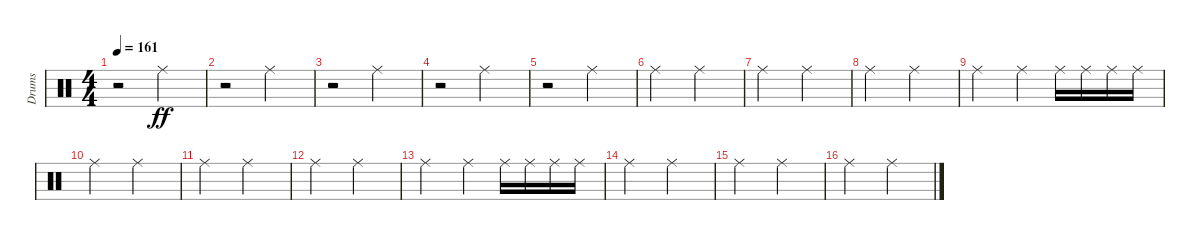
\track ("Drums" "Drums") {instrument percussion}
\staff {score}
\articulation defaults
\ts (4 4)
\tempo 161
\clef neutral
\ks c
r.2{dy ff} "Ride (middle)".2 |
r.2 "Ride (middle)".2 |
r.2 "Ride (middle)".2 |
r.2 "Ride (middle)".2 |
r.2 "Ride (middle)".2 |
"Ride (middle)".2 "Ride (middle)".2 |
"Ride (middle)".2 "Ride (middle)".2 |
"Ride (middle)".2 "Ride (middle)".2 |
"Ride (middle)".2 "Ride (middle)".4 "Ride (middle)".16 "Ride (middle)".16 "Ride (middle)".16 "Ride (middle)".16 |
"Ride (middle)".2 "Ride (middle)".2 |
"Ride (middle)".2 "Ride (middle)".2 |
"Ride (middle)".2 "Ride (middle)".2 |
"Ride (middle)".2 "Ride (middle)".4 "Ride (middle)".16 "Ride (middle)".16 "Ride (middle)".16 "Ride (middle)".16 |
"Ride (middle)".2 "Ride (middle)".2 |
"Ride (middle)".2 "Ride (middle)".2 |
"Ride (middle)".2 "Ride (middle)".2
